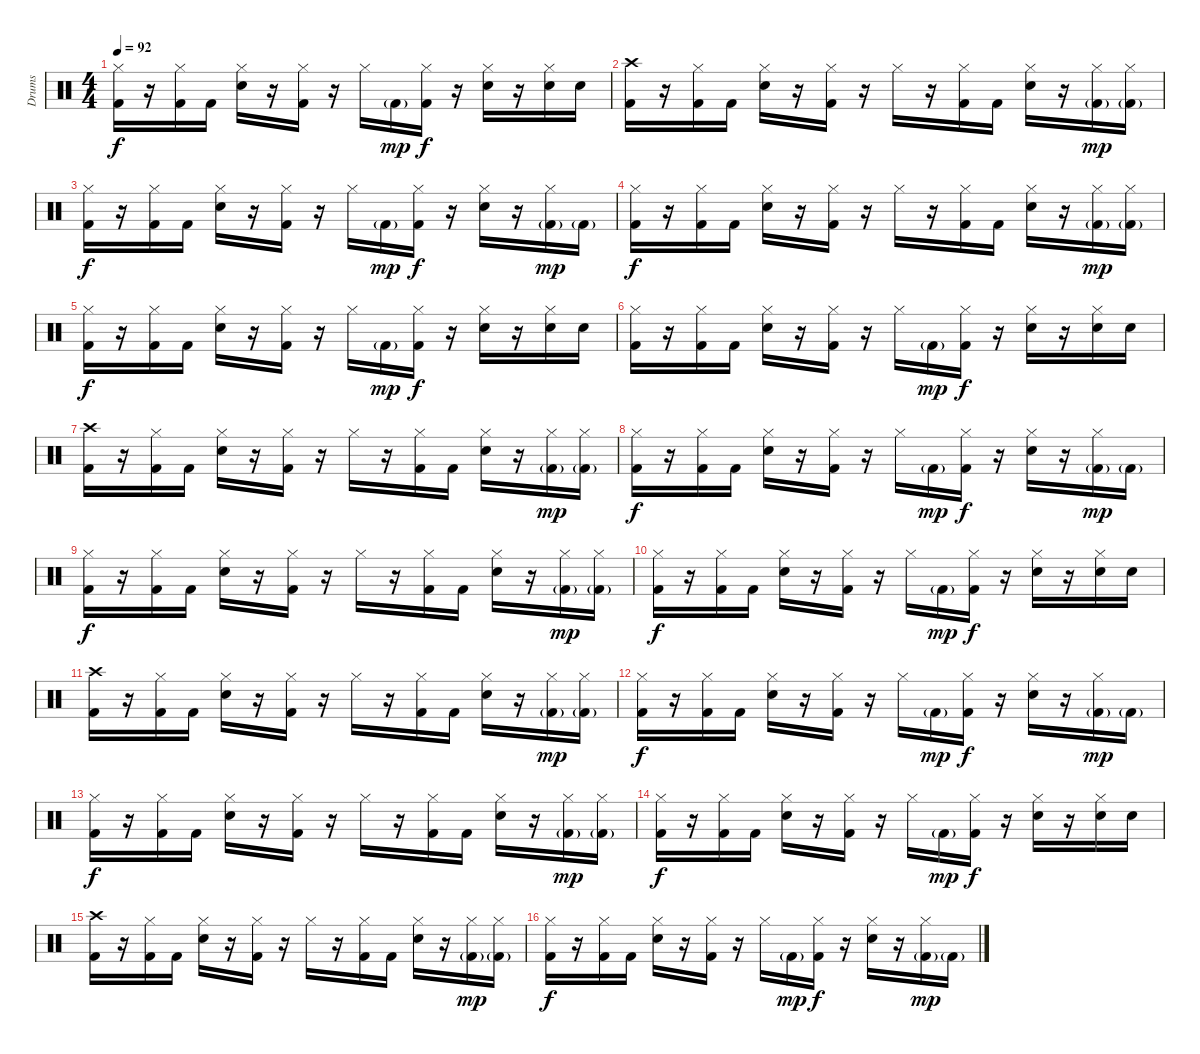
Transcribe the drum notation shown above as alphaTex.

\track ("Drums" "Drums") {instrument percussion}
\staff {score}
\articulation defaults
\ts (4 4)
\tempo 92
\clef neutral
\ks c
("Hi-Hat (closed)" "Kick (hit) 2").16{dy f} r.16 ("Hi-Hat (closed)" "Kick (hit) 2").16 "Kick (hit) 2".16 ("Hi-Hat (closed)" "Snare (hit) 2").16 r.16 ("Hi-Hat (closed)" "Kick (hit) 2").16 r.16 "Hi-Hat (closed)".16 "Kick (hit) 2"{g}.16{dy mp} ("Hi-Hat (closed)" "Kick (hit) 2").16{dy f} r.16 ("Hi-Hat (closed)" "Snare (hit) 2").16 r.16 ("Hi-Hat (closed)" "Snare (hit) 2").16 "Snare (hit) 2".16 |
("Crash high (hit)" "Kick (hit) 2").16 r.16 ("Hi-Hat (closed)" "Kick (hit) 2").16 "Kick (hit) 2".16 ("Hi-Hat (closed)" "Snare (hit) 2").16 r.16 ("Hi-Hat (closed)" "Kick (hit) 2").16 r.16 "Hi-Hat (closed)".16 r.16 ("Hi-Hat (closed)" "Kick (hit) 2").16 "Kick (hit) 2".16 ("Hi-Hat (closed)" "Snare (hit) 2").16 r.16 ("Hi-Hat (closed)" "Kick (hit) 2"{g}).16{dy mp} ("Hi-Hat (closed)" "Kick (hit) 2"{g}).16 |
("Hi-Hat (closed)" "Kick (hit) 2").16{dy f} r.16 ("Hi-Hat (closed)" "Kick (hit) 2").16 "Kick (hit) 2".16 ("Hi-Hat (closed)" "Snare (hit) 2").16 r.16 ("Hi-Hat (closed)" "Kick (hit) 2").16 r.16 "Hi-Hat (closed)".16 "Kick (hit) 2"{g}.16{dy mp} ("Hi-Hat (closed)" "Kick (hit) 2").16{dy f} r.16 ("Hi-Hat (closed)" "Snare (hit) 2").16 r.16 ("Hi-Hat (closed)" "Kick (hit) 2"{g}).16{dy mp} "Kick (hit) 2"{g}.16 |
("Hi-Hat (closed)" "Kick (hit) 2").16{dy f} r.16 ("Hi-Hat (closed)" "Kick (hit) 2").16 "Kick (hit) 2".16 ("Hi-Hat (closed)" "Snare (hit) 2").16 r.16 ("Hi-Hat (closed)" "Kick (hit) 2").16 r.16 "Hi-Hat (closed)".16 r.16 ("Hi-Hat (closed)" "Kick (hit) 2").16 "Kick (hit) 2".16 ("Hi-Hat (closed)" "Snare (hit) 2").16 r.16 ("Hi-Hat (closed)" "Kick (hit) 2"{g}).16{dy mp} ("Hi-Hat (closed)" "Kick (hit) 2"{g}).16 |
("Hi-Hat (closed)" "Kick (hit) 2").16{dy f} r.16 ("Hi-Hat (closed)" "Kick (hit) 2").16 "Kick (hit) 2".16 ("Hi-Hat (closed)" "Snare (hit) 2").16 r.16 ("Hi-Hat (closed)" "Kick (hit) 2").16 r.16 "Hi-Hat (closed)".16 "Kick (hit) 2"{g}.16{dy mp} ("Hi-Hat (closed)" "Kick (hit) 2").16{dy f} r.16 ("Hi-Hat (closed)" "Snare (hit) 2").16 r.16 ("Hi-Hat (closed)" "Snare (hit) 2").16 "Snare (hit) 2".16 |
("Hi-Hat (closed)" "Kick (hit) 2").16 r.16 ("Hi-Hat (closed)" "Kick (hit) 2").16 "Kick (hit) 2".16 ("Hi-Hat (closed)" "Snare (hit) 2").16 r.16 ("Hi-Hat (closed)" "Kick (hit) 2").16 r.16 "Hi-Hat (closed)".16 "Kick (hit) 2"{g}.16{dy mp} ("Hi-Hat (closed)" "Kick (hit) 2").16{dy f} r.16 ("Hi-Hat (closed)" "Snare (hit) 2").16 r.16 ("Hi-Hat (closed)" "Snare (hit) 2").16 "Snare (hit) 2".16 |
("Crash high (hit)" "Kick (hit) 2").16 r.16 ("Hi-Hat (closed)" "Kick (hit) 2").16 "Kick (hit) 2".16 ("Hi-Hat (closed)" "Snare (hit) 2").16 r.16 ("Hi-Hat (closed)" "Kick (hit) 2").16 r.16 "Hi-Hat (closed)".16 r.16 ("Hi-Hat (closed)" "Kick (hit) 2").16 "Kick (hit) 2".16 ("Hi-Hat (closed)" "Snare (hit) 2").16 r.16 ("Hi-Hat (closed)" "Kick (hit) 2"{g}).16{dy mp} ("Hi-Hat (closed)" "Kick (hit) 2"{g}).16 |
("Hi-Hat (closed)" "Kick (hit) 2").16{dy f} r.16 ("Hi-Hat (closed)" "Kick (hit) 2").16 "Kick (hit) 2".16 ("Hi-Hat (closed)" "Snare (hit) 2").16 r.16 ("Hi-Hat (closed)" "Kick (hit) 2").16 r.16 "Hi-Hat (closed)".16 "Kick (hit) 2"{g}.16{dy mp} ("Hi-Hat (closed)" "Kick (hit) 2").16{dy f} r.16 ("Hi-Hat (closed)" "Snare (hit) 2").16 r.16 ("Hi-Hat (closed)" "Kick (hit) 2"{g}).16{dy mp} "Kick (hit) 2"{g}.16 |
("Hi-Hat (closed)" "Kick (hit) 2").16{dy f} r.16 ("Hi-Hat (closed)" "Kick (hit) 2").16 "Kick (hit) 2".16 ("Hi-Hat (closed)" "Snare (hit) 2").16 r.16 ("Hi-Hat (closed)" "Kick (hit) 2").16 r.16 "Hi-Hat (closed)".16 r.16 ("Hi-Hat (closed)" "Kick (hit) 2").16 "Kick (hit) 2".16 ("Hi-Hat (closed)" "Snare (hit) 2").16 r.16 ("Hi-Hat (closed)" "Kick (hit) 2"{g}).16{dy mp} ("Hi-Hat (closed)" "Kick (hit) 2"{g}).16 |
("Hi-Hat (closed)" "Kick (hit) 2").16{dy f} r.16 ("Hi-Hat (closed)" "Kick (hit) 2").16 "Kick (hit) 2".16 ("Hi-Hat (closed)" "Snare (hit) 2").16 r.16 ("Hi-Hat (closed)" "Kick (hit) 2").16 r.16 "Hi-Hat (closed)".16 "Kick (hit) 2"{g}.16{dy mp} ("Hi-Hat (closed)" "Kick (hit) 2").16{dy f} r.16 ("Hi-Hat (closed)" "Snare (hit) 2").16 r.16 ("Hi-Hat (closed)" "Snare (hit) 2").16 "Snare (hit) 2".16 |
("Crash high (hit)" "Kick (hit) 2").16 r.16 ("Hi-Hat (closed)" "Kick (hit) 2").16 "Kick (hit) 2".16 ("Hi-Hat (closed)" "Snare (hit) 2").16 r.16 ("Hi-Hat (closed)" "Kick (hit) 2").16 r.16 "Hi-Hat (closed)".16 r.16 ("Hi-Hat (closed)" "Kick (hit) 2").16 "Kick (hit) 2".16 ("Hi-Hat (closed)" "Snare (hit) 2").16 r.16 ("Hi-Hat (closed)" "Kick (hit) 2"{g}).16{dy mp} ("Hi-Hat (closed)" "Kick (hit) 2"{g}).16 |
("Hi-Hat (closed)" "Kick (hit) 2").16{dy f} r.16 ("Hi-Hat (closed)" "Kick (hit) 2").16 "Kick (hit) 2".16 ("Hi-Hat (closed)" "Snare (hit) 2").16 r.16 ("Hi-Hat (closed)" "Kick (hit) 2").16 r.16 "Hi-Hat (closed)".16 "Kick (hit) 2"{g}.16{dy mp} ("Hi-Hat (closed)" "Kick (hit) 2").16{dy f} r.16 ("Hi-Hat (closed)" "Snare (hit) 2").16 r.16 ("Hi-Hat (closed)" "Kick (hit) 2"{g}).16{dy mp} "Kick (hit) 2"{g}.16 |
("Hi-Hat (closed)" "Kick (hit) 2").16{dy f} r.16 ("Hi-Hat (closed)" "Kick (hit) 2").16 "Kick (hit) 2".16 ("Hi-Hat (closed)" "Snare (hit) 2").16 r.16 ("Hi-Hat (closed)" "Kick (hit) 2").16 r.16 "Hi-Hat (closed)".16 r.16 ("Hi-Hat (closed)" "Kick (hit) 2").16 "Kick (hit) 2".16 ("Hi-Hat (closed)" "Snare (hit) 2").16 r.16 ("Hi-Hat (closed)" "Kick (hit) 2"{g}).16{dy mp} ("Hi-Hat (closed)" "Kick (hit) 2"{g}).16 |
("Hi-Hat (closed)" "Kick (hit) 2").16{dy f} r.16 ("Hi-Hat (closed)" "Kick (hit) 2").16 "Kick (hit) 2".16 ("Hi-Hat (closed)" "Snare (hit) 2").16 r.16 ("Hi-Hat (closed)" "Kick (hit) 2").16 r.16 "Hi-Hat (closed)".16 "Kick (hit) 2"{g}.16{dy mp} ("Hi-Hat (closed)" "Kick (hit) 2").16{dy f} r.16 ("Hi-Hat (closed)" "Snare (hit) 2").16 r.16 ("Hi-Hat (closed)" "Snare (hit) 2").16 "Snare (hit) 2".16 |
("Crash high (hit)" "Kick (hit) 2").16 r.16 ("Hi-Hat (closed)" "Kick (hit) 2").16 "Kick (hit) 2".16 ("Hi-Hat (closed)" "Snare (hit) 2").16 r.16 ("Hi-Hat (closed)" "Kick (hit) 2").16 r.16 "Hi-Hat (closed)".16 r.16 ("Hi-Hat (closed)" "Kick (hit) 2").16 "Kick (hit) 2".16 ("Hi-Hat (closed)" "Snare (hit) 2").16 r.16 ("Hi-Hat (closed)" "Kick (hit) 2"{g}).16{dy mp} ("Hi-Hat (closed)" "Kick (hit) 2"{g}).16 |
("Hi-Hat (closed)" "Kick (hit) 2").16{dy f} r.16 ("Hi-Hat (closed)" "Kick (hit) 2").16 "Kick (hit) 2".16 ("Hi-Hat (closed)" "Snare (hit) 2").16 r.16 ("Hi-Hat (closed)" "Kick (hit) 2").16 r.16 "Hi-Hat (closed)".16 "Kick (hit) 2"{g}.16{dy mp} ("Hi-Hat (closed)" "Kick (hit) 2").16{dy f} r.16 ("Hi-Hat (closed)" "Snare (hit) 2").16 r.16 ("Hi-Hat (closed)" "Kick (hit) 2"{g}).16{dy mp} "Kick (hit) 2"{g}.16
